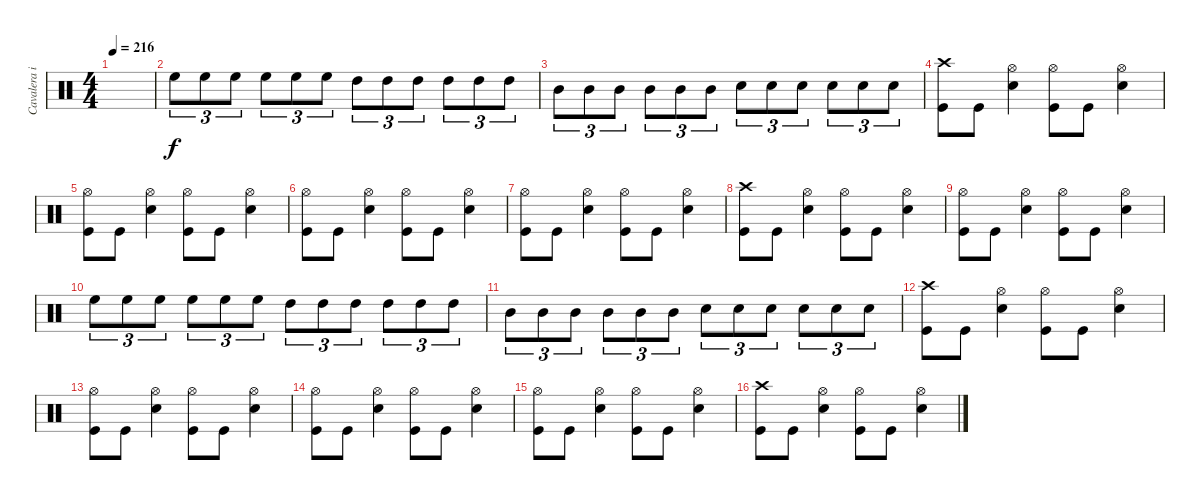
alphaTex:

\track ("Cavalera igor" "Cavalera i") {instrument percussion}
\staff {score}
\articulation defaults
\ts (4 4)
\tempo 216
\clef neutral
\ks c
|
"High Floor Tom (hit)".8{tu (3 2)} "High Floor Tom (hit)".8{tu (3 2)} "High Floor Tom (hit)".8{tu (3 2)} "High Floor Tom (hit)".8{tu (3 2)} "High Floor Tom (hit)".8{tu (3 2)} "High Floor Tom (hit)".8{tu (3 2)} "High Tom (hit)".8{tu (3 2)} "High Tom (hit)".8{tu (3 2)} "High Tom (hit)".8{tu (3 2)} "High Tom (hit)".8{tu (3 2)} "High Tom (hit)".8{tu (3 2)} "High Tom (hit)".8{tu (3 2)} |
"Mid Tom (hit)".8{tu (3 2)} "Mid Tom (hit)".8{tu (3 2)} "Mid Tom (hit)".8{tu (3 2)} "Mid Tom (hit)".8{tu (3 2)} "Mid Tom (hit)".8{tu (3 2)} "Mid Tom (hit)".8{tu (3 2)} "Electric Snare (hit)".8{tu (3 2)} "Electric Snare (hit)".8{tu (3 2)} "Electric Snare (hit)".8{tu (3 2)} "Electric Snare (hit)".8{tu (3 2)} "Electric Snare (hit)".8{tu (3 2)} "Electric Snare (hit)".8{tu (3 2)} |
("Crash high (hit)" "Kick (hit)").8 "Kick (hit)".8 ("Hi-Hat (open)" "Electric Snare (hit)").4 ("Hi-Hat (open)" "Kick (hit)").8 "Kick (hit)".8 ("Hi-Hat (open)" "Electric Snare (hit)").4 |
("Hi-Hat (open)" "Kick (hit)").8 "Kick (hit)".8 ("Hi-Hat (open)" "Electric Snare (hit)").4 ("Hi-Hat (open)" "Kick (hit)").8 "Kick (hit)".8 ("Hi-Hat (open)" "Electric Snare (hit)").4 |
("Hi-Hat (open)" "Kick (hit)").8 "Kick (hit)".8 ("Hi-Hat (open)" "Electric Snare (hit)").4 ("Hi-Hat (open)" "Kick (hit)").8 "Kick (hit)".8 ("Hi-Hat (open)" "Electric Snare (hit)").4 |
("Hi-Hat (open)" "Kick (hit)").8 "Kick (hit)".8 ("Hi-Hat (open)" "Electric Snare (hit)").4 ("Hi-Hat (open)" "Kick (hit)").8 "Kick (hit)".8 ("Hi-Hat (open)" "Electric Snare (hit)").4 |
("Crash high (hit)" "Kick (hit)").8 "Kick (hit)".8 ("Hi-Hat (open)" "Electric Snare (hit)").4 ("Hi-Hat (open)" "Kick (hit)").8 "Kick (hit)".8 ("Hi-Hat (open)" "Electric Snare (hit)").4 |
("Hi-Hat (open)" "Kick (hit)").8 "Kick (hit)".8 ("Hi-Hat (open)" "Electric Snare (hit)").4 ("Hi-Hat (open)" "Kick (hit)").8 "Kick (hit)".8 ("Hi-Hat (open)" "Electric Snare (hit)").4 |
"High Floor Tom (hit)".8{tu (3 2)} "High Floor Tom (hit)".8{tu (3 2)} "High Floor Tom (hit)".8{tu (3 2)} "High Floor Tom (hit)".8{tu (3 2)} "High Floor Tom (hit)".8{tu (3 2)} "High Floor Tom (hit)".8{tu (3 2)} "High Tom (hit)".8{tu (3 2)} "High Tom (hit)".8{tu (3 2)} "High Tom (hit)".8{tu (3 2)} "High Tom (hit)".8{tu (3 2)} "High Tom (hit)".8{tu (3 2)} "High Tom (hit)".8{tu (3 2)} |
"Mid Tom (hit)".8{tu (3 2)} "Mid Tom (hit)".8{tu (3 2)} "Mid Tom (hit)".8{tu (3 2)} "Mid Tom (hit)".8{tu (3 2)} "Mid Tom (hit)".8{tu (3 2)} "Mid Tom (hit)".8{tu (3 2)} "Electric Snare (hit)".8{tu (3 2)} "Electric Snare (hit)".8{tu (3 2)} "Electric Snare (hit)".8{tu (3 2)} "Electric Snare (hit)".8{tu (3 2)} "Electric Snare (hit)".8{tu (3 2)} "Electric Snare (hit)".8{tu (3 2)} |
("Crash high (hit)" "Kick (hit)").8 "Kick (hit)".8 ("Hi-Hat (open)" "Electric Snare (hit)").4 ("Hi-Hat (open)" "Kick (hit)").8 "Kick (hit)".8 ("Hi-Hat (open)" "Electric Snare (hit)").4 |
("Hi-Hat (open)" "Kick (hit)").8 "Kick (hit)".8 ("Hi-Hat (open)" "Electric Snare (hit)").4 ("Hi-Hat (open)" "Kick (hit)").8 "Kick (hit)".8 ("Hi-Hat (open)" "Electric Snare (hit)").4 |
("Hi-Hat (open)" "Kick (hit)").8 "Kick (hit)".8 ("Hi-Hat (open)" "Electric Snare (hit)").4 ("Hi-Hat (open)" "Kick (hit)").8 "Kick (hit)".8 ("Hi-Hat (open)" "Electric Snare (hit)").4 |
("Hi-Hat (open)" "Kick (hit)").8 "Kick (hit)".8 ("Hi-Hat (open)" "Electric Snare (hit)").4 ("Hi-Hat (open)" "Kick (hit)").8 "Kick (hit)".8 ("Hi-Hat (open)" "Electric Snare (hit)").4 |
("Crash high (hit)" "Kick (hit)").8 "Kick (hit)".8 ("Hi-Hat (open)" "Electric Snare (hit)").4 ("Hi-Hat (open)" "Kick (hit)").8 "Kick (hit)".8 ("Hi-Hat (open)" "Electric Snare (hit)").4
